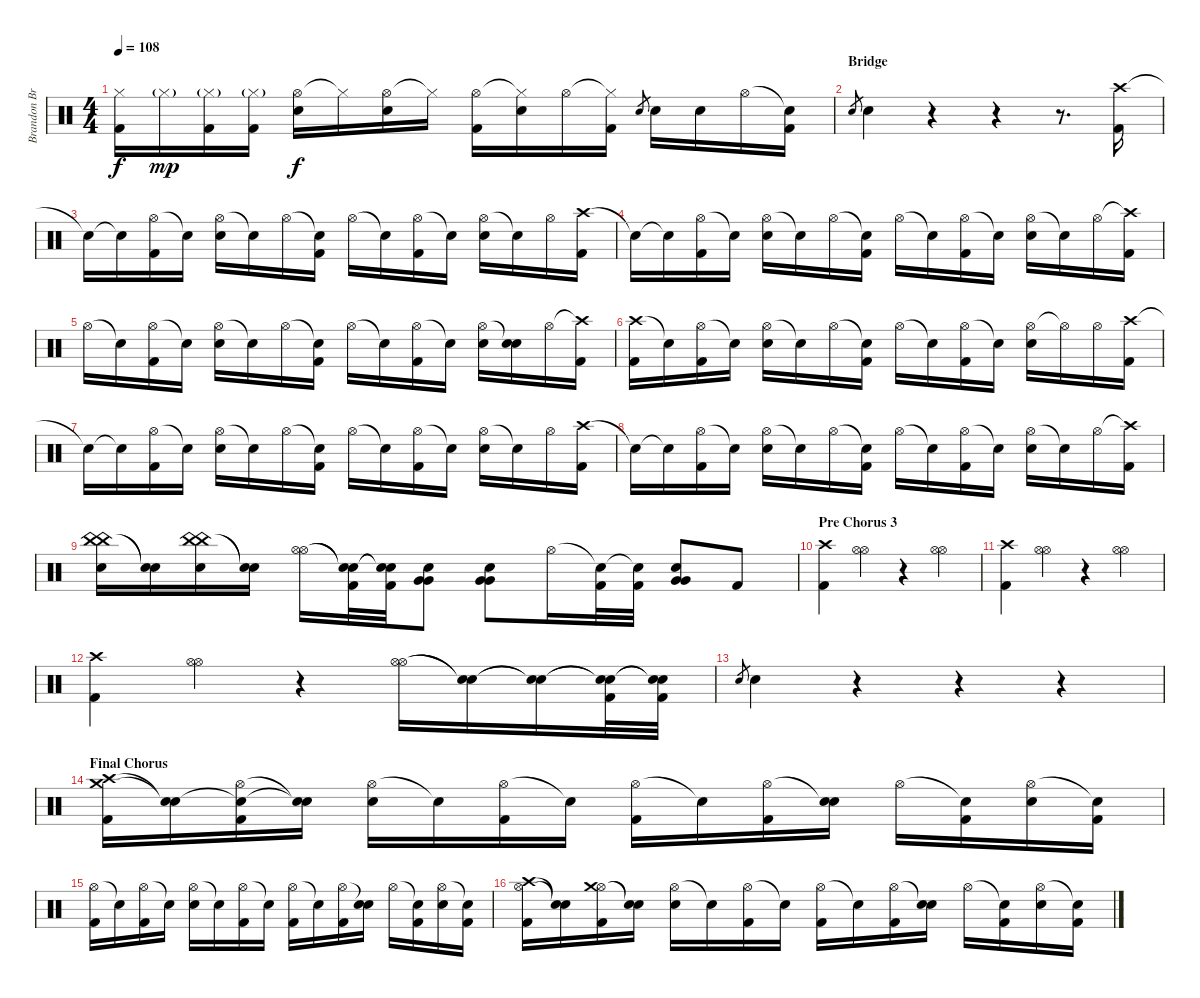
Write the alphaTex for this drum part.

\track ("Brandon Brown (Drums)" "Brandon Br") {instrument percussion}
\staff {score}
\articulation defaults
\ts (4 4)
\tempo 108
\clef neutral
\ks c
("Hi-Hat (closed)" "Kick (hit) 2").16{dy f} "Hi-Hat (closed)"{g}.16{dy mp} ("Hi-Hat (closed)"{g} "Kick (hit) 2").16 ("Hi-Hat (closed)"{g} "Kick (hit) 2").16 ("Hi-Hat (open)" "Electric Snare (hit)").16{dy f} "Hi-Hat (closed)"{t}.16 ("Hi-Hat (open)" "Electric Snare (hit)").16 "Hi-Hat (closed)"{t}.16 ("Hi-Hat (open)" "Kick (hit) 2").16 ("Hi-Hat (closed)"{t} "Electric Snare (hit)").16 "Hi-Hat (open)".16 ("Hi-Hat (closed)"{t} "Kick (hit) 2").16 "Electric Snare (hit)".8{gr} "Electric Snare (hit)".16 "Electric Snare (hit)".16 "Hi-Hat (open)".16 ("Snare (hit)"{t} "Kick (hit) 2").16 |
\section ("" "Bridge")
"Electric Snare (hit)".8{gr} "Electric Snare (hit)".4 r.4 r.4 r.8{d} ("Crash high (hit)" "Kick (hit) 2").16 |
"Snare (hit)"{t}.16 "Snare (hit)"{t}.16 ("Hi-Hat (open)" "Kick (hit) 2").16 "Snare (hit)"{t}.16 ("Hi-Hat (open)" "Electric Snare (hit)").16 "Snare (hit)"{t}.16 "Hi-Hat (open)".16 ("Snare (hit)"{t} "Kick (hit) 2").16 "Hi-Hat (open)".16 "Snare (hit)"{t}.16 ("Hi-Hat (open)" "Kick (hit) 2").16 "Snare (hit)"{t}.16 ("Hi-Hat (open)" "Electric Snare (hit)").16 "Snare (hit)"{t}.16 "Hi-Hat (open)".16 ("Crash high (hit)" "Kick (hit) 2").16 |
"Snare (hit)"{t}.16 "Snare (hit)"{t}.16 ("Hi-Hat (open)" "Kick (hit) 2").16 "Snare (hit)"{t}.16 ("Hi-Hat (open)" "Electric Snare (hit)").16 "Snare (hit)"{t}.16 "Hi-Hat (open)".16 ("Snare (hit)"{t} "Kick (hit) 2").16 "Hi-Hat (open)".16 "Snare (hit)"{t}.16 ("Hi-Hat (open)" "Kick (hit) 2").16 "Snare (hit)"{t}.16 ("Hi-Hat (open)" "Electric Snare (hit)").16 "Snare (hit)"{t}.16 "Hi-Hat (open)".16 ("Crash high (hit)"{t} "Kick (hit) 2").16 |
"Hi-Hat (open)".16 "Snare (hit)"{t}.16 ("Hi-Hat (open)" "Kick (hit) 2").16 "Snare (hit)"{t}.16 ("Hi-Hat (open)" "Electric Snare (hit)").16 "Snare (hit)"{t}.16 "Hi-Hat (open)".16 ("Snare (hit)"{t} "Kick (hit) 2").16 "Hi-Hat (open)".16 "Snare (hit)"{t}.16 ("Hi-Hat (open)" "Kick (hit) 2").16 "Snare (hit)"{t}.16 ("Hi-Hat (open)" "Electric Snare (hit)").16 ("Snare (hit)"{t} "Electric Snare (hit)").16 "Hi-Hat (open)".16 ("Crash high (hit)"{t} "Kick (hit) 2").16 |
("Crash high (hit)" "Kick (hit) 2").16 "Snare (hit)"{t}.16 ("Hi-Hat (open)" "Kick (hit) 2").16 "Snare (hit)"{t}.16 ("Hi-Hat (open)" "Electric Snare (hit)").16 "Snare (hit)"{t}.16 "Hi-Hat (open)".16 ("Snare (hit)"{t} "Kick (hit) 2").16 "Hi-Hat (open)".16 "Snare (hit)"{t}.16 ("Hi-Hat (open)" "Kick (hit) 2").16 "Snare (hit)"{t}.16 ("Hi-Hat (open)" "Electric Snare (hit)").16 "Hi-Hat (open)"{t}.16 "Hi-Hat (open)".16 ("Crash high (hit)" "Kick (hit) 2").16 |
"Snare (hit)"{t}.16 "Snare (hit)"{t}.16 ("Hi-Hat (open)" "Kick (hit) 2").16 "Snare (hit)"{t}.16 ("Hi-Hat (open)" "Electric Snare (hit)").16 "Snare (hit)"{t}.16 "Hi-Hat (open)".16 ("Snare (hit)"{t} "Kick (hit) 2").16 "Hi-Hat (open)".16 "Snare (hit)"{t}.16 ("Hi-Hat (open)" "Kick (hit) 2").16 "Snare (hit)"{t}.16 ("Hi-Hat (open)" "Electric Snare (hit)").16 "Snare (hit)"{t}.16 "Hi-Hat (open)".16 ("Crash high (hit)" "Kick (hit) 2").16 |
"Snare (hit)"{t}.16 "Snare (hit)"{t}.16 ("Hi-Hat (open)" "Kick (hit) 2").16 "Snare (hit)"{t}.16 ("Hi-Hat (open)" "Electric Snare (hit)").16 "Snare (hit)"{t}.16 "Hi-Hat (open)".16 ("Snare (hit)"{t} "Kick (hit) 2").16 "Hi-Hat (open)".16 "Snare (hit)"{t}.16 ("Hi-Hat (open)" "Kick (hit) 2").16 "Snare (hit)"{t}.16 ("Hi-Hat (open)" "Electric Snare (hit)").16 "Snare (hit)"{t}.16 "Hi-Hat (open)".16 ("Crash high (hit)"{t} "Kick (hit) 2").16 |
("China (hit)" "China (hit)" "Electric Snare (hit)").16 ("Snare (hit)"{t} "Snare (hit)"{t}).16 ("China (hit)" "China (hit)" "Electric Snare (hit)").16 ("Snare (hit)"{t} "Snare (hit)"{t}).16 ("Hi-Hat (open)" "Hi-Hat (open)").16 ("Snare (hit)"{t} "Snare (hit)"{t} "Kick (hit) 2").32 ("Snare (hit)"{t} "Snare (hit)"{t} "Kick (hit) 2").32 ("Electric Snare (hit)" "Very Low Tom (hit)" "Very Low Tom (hit)").8 ("Electric Snare (hit)" "Very Low Tom (hit)" "Very Low Tom (hit)").8 "Hi-Hat (open)".16 ("Snare (hit)"{t} "Kick (hit) 2").32 ("Snare (hit)"{t} "Kick (hit) 2").32 ("Electric Snare (hit)" "Very Low Tom (hit)" "Very Low Tom (hit)").8 "Kick (hit) 2".8 |
\section ("" "Pre Chorus 3")
("Crash high (hit)" "Kick (hit) 2").4 ("Hi-Hat (open)" "Hi-Hat (open)").4 r.4 ("Hi-Hat (open)" "Hi-Hat (open)").4 |
("Crash high (hit)" "Kick (hit) 2").4 ("Hi-Hat (open)" "Hi-Hat (open)").4 r.4 ("Hi-Hat (open)" "Hi-Hat (open)").4 |
("Crash high (hit)" "Kick (hit) 2").4 ("Hi-Hat (open)" "Hi-Hat (open)").4 r.4 ("Hi-Hat (open)" "Hi-Hat (open)").16 ("Snare (hit)"{t} "Snare (hit)"{t}).16 ("Snare (hit)"{t} "Snare (hit)"{t}).16 ("Snare (hit)"{t} "Snare (hit)"{t} "Kick (hit) 2").32 ("Snare (hit)"{t} "Snare (hit)"{t} "Kick (hit) 2").32 |
"Electric Snare (hit)".8{gr} "Electric Snare (hit)".4 r.4 r.4 r.4 |
\section ("" "Final Chorus")
("Crash medium (hit)" "Crash high (hit)" "Kick (hit) 2").16 ("Snare (hit)"{t} "Snare (hit)"{t}).16 ("Hi-Hat (open)" "Snare (hit)"{t} "Kick (hit) 2").16 ("Snare (hit)"{t} "Snare (hit)"{t}).16 ("Hi-Hat (open)" "Electric Snare (hit)").16 "Snare (hit)"{t}.16 ("Hi-Hat (open)" "Kick (hit) 2").16 "Snare (hit)"{t}.16 ("Hi-Hat (open)" "Kick (hit) 2").16 "Snare (hit)"{t}.16 ("Hi-Hat (open)" "Kick (hit) 2").16 ("Snare (hit)"{t} "Electric Snare (hit)").16 "Hi-Hat (open)".16 ("Snare (hit)"{t} "Kick (hit) 2").16 ("Hi-Hat (open)" "Electric Snare (hit)").16 ("Snare (hit)"{t} "Kick (hit) 2").16 |
("Hi-Hat (open)" "Kick (hit) 2").16 "Snare (hit)"{t}.16 ("Hi-Hat (open)" "Kick (hit) 2").16 "Snare (hit)"{t}.16 ("Hi-Hat (open)" "Electric Snare (hit)").16 "Snare (hit)"{t}.16 ("Hi-Hat (open)" "Kick (hit) 2").16 "Snare (hit)"{t}.16 ("Hi-Hat (open)" "Kick (hit) 2").16 "Snare (hit)"{t}.16 ("Hi-Hat (open)" "Kick (hit) 2").16 ("Snare (hit)"{t} "Electric Snare (hit)").16 "Hi-Hat (open)".16 ("Snare (hit)"{t} "Kick (hit) 2").16 ("Hi-Hat (open)" "Electric Snare (hit)").16 ("Snare (hit)"{t} "Kick (hit) 2").16 |
("Hi-Hat (open)" "Crash high (hit)" "Kick (hit) 2").16 ("Snare (hit)"{t} "Snare (hit)"{t}).16 ("Hi-Hat (open)" "Crash medium (hit)" "Kick (hit) 2").16 ("Snare (hit)"{t} "Snare (hit)"{t}).16 ("Hi-Hat (open)" "Electric Snare (hit)").16 "Snare (hit)"{t}.16 ("Hi-Hat (open)" "Kick (hit) 2").16 "Snare (hit)"{t}.16 ("Hi-Hat (open)" "Kick (hit) 2").16 "Snare (hit)"{t}.16 ("Hi-Hat (open)" "Kick (hit) 2").16 ("Snare (hit)"{t} "Electric Snare (hit)").16 "Hi-Hat (open)".16 ("Snare (hit)"{t} "Kick (hit) 2").16 ("Hi-Hat (open)" "Electric Snare (hit)").16 ("Snare (hit)"{t} "Kick (hit) 2").16
